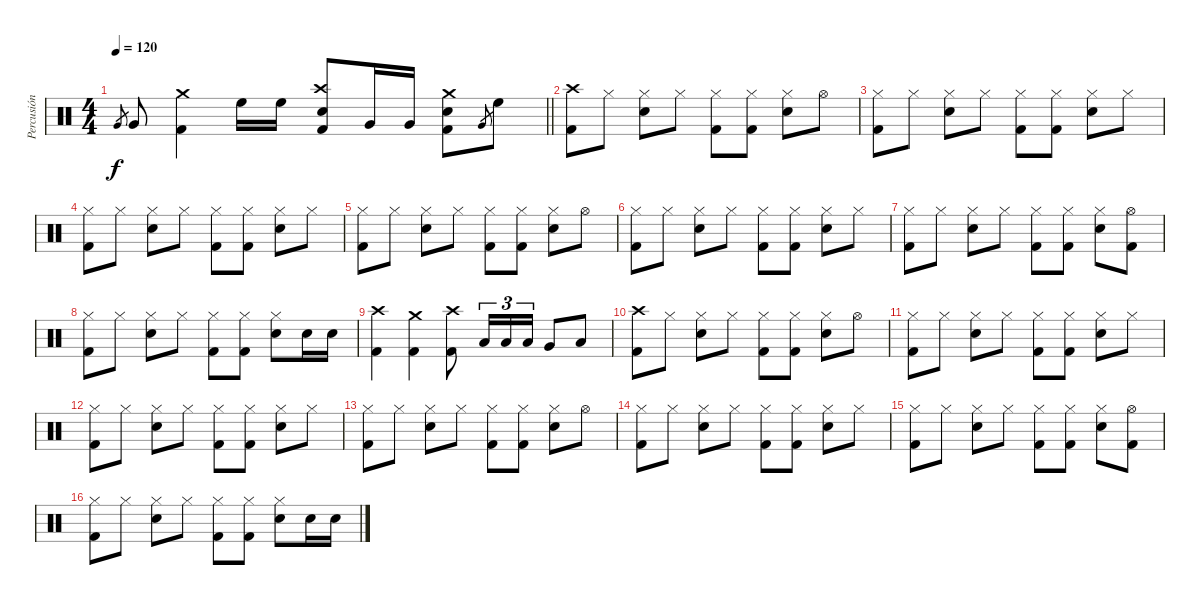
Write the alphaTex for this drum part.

\track ("Percusión" "Percusión") {instrument percussion}
\staff {score}
\articulation defaults
\ts (4 4)
\tempo 120
\clef neutral
\barLineRight lightlight
\ks c "Very Low Tom (hit)".8{gr dy f} "Very Low Tom (hit)".8
("Crash medium (hit)" "Kick (hit) 2").4 "High Floor Tom (hit)".16 "High Floor Tom (hit)".16 ("Crash high (hit)" "Electric Snare (hit)" "Kick (hit) 2").8 "Very Low Tom (hit)".16 "Very Low Tom (hit)".16 ("Crash medium (hit)" "Electric Snare (hit)" "Kick (hit) 2").8 "Very Low Tom (hit)".8{gr} "High Floor Tom (hit)".8 |
("Crash high (hit)" "Kick (hit) 2").8 "Hi-Hat (closed)".8 ("Hi-Hat (closed)" "Electric Snare (hit)").8 "Hi-Hat (closed)".8 ("Hi-Hat (closed)" "Kick (hit) 2").8 ("Hi-Hat (closed)" "Kick (hit) 2").8 ("Hi-Hat (closed)" "Electric Snare (hit)").8 "Hi-Hat (open)".8 |
("Hi-Hat (closed)" "Kick (hit) 2").8 "Hi-Hat (closed)".8 ("Hi-Hat (closed)" "Electric Snare (hit)").8 "Hi-Hat (closed)".8 ("Hi-Hat (closed)" "Kick (hit) 2").8 ("Hi-Hat (closed)" "Kick (hit) 2").8 ("Hi-Hat (closed)" "Electric Snare (hit)").8 "Hi-Hat (closed)".8 |
("Hi-Hat (closed)" "Kick (hit) 2").8 "Hi-Hat (closed)".8 ("Hi-Hat (closed)" "Electric Snare (hit)").8 "Hi-Hat (closed)".8 ("Hi-Hat (closed)" "Kick (hit) 2").8 ("Hi-Hat (closed)" "Kick (hit) 2").8 ("Hi-Hat (closed)" "Electric Snare (hit)").8 "Hi-Hat (closed)".8 |
("Hi-Hat (closed)" "Kick (hit) 2").8 "Hi-Hat (closed)".8 ("Hi-Hat (closed)" "Electric Snare (hit)").8 "Hi-Hat (closed)".8 ("Hi-Hat (closed)" "Kick (hit) 2").8 ("Hi-Hat (closed)" "Kick (hit) 2").8 ("Hi-Hat (closed)" "Electric Snare (hit)").8 "Hi-Hat (open)".8 |
("Hi-Hat (closed)" "Kick (hit) 2").8 "Hi-Hat (closed)".8 ("Hi-Hat (closed)" "Electric Snare (hit)").8 "Hi-Hat (closed)".8 ("Hi-Hat (closed)" "Kick (hit) 2").8 ("Hi-Hat (closed)" "Kick (hit) 2").8 ("Hi-Hat (closed)" "Electric Snare (hit)").8 "Hi-Hat (closed)".8 |
("Hi-Hat (closed)" "Kick (hit) 2").8 "Hi-Hat (closed)".8 ("Hi-Hat (closed)" "Electric Snare (hit)").8 "Hi-Hat (closed)".8 ("Hi-Hat (closed)" "Kick (hit) 2").8 ("Hi-Hat (closed)" "Kick (hit) 2").8 ("Hi-Hat (closed)" "Electric Snare (hit)").8 ("Hi-Hat (open)" "Kick (hit) 2").8 |
("Hi-Hat (closed)" "Kick (hit) 2").8 "Hi-Hat (closed)".8 ("Hi-Hat (closed)" "Electric Snare (hit)").8 "Hi-Hat (closed)".8 ("Hi-Hat (closed)" "Kick (hit) 2").8 ("Hi-Hat (closed)" "Kick (hit) 2").8 ("Hi-Hat (closed)" "Electric Snare (hit)").8 "Electric Snare (hit)".16 "Electric Snare (hit)".16 |
("Crash high (hit)" "Kick (hit) 2").4 ("Crash medium (hit)" "Kick (hit) 2").4 ("Crash high (hit)" "Kick (hit) 2").8 "Low Tom (hit)".16{tu (3 2)} "Low Tom (hit)".16{tu (3 2)} "Low Tom (hit)".16{tu (3 2)} "Very Low Tom (hit)".8 "Low Tom (hit)".8 |
("Crash high (hit)" "Kick (hit) 2").8 "Hi-Hat (closed)".8 ("Hi-Hat (closed)" "Electric Snare (hit)").8 "Hi-Hat (closed)".8 ("Hi-Hat (closed)" "Kick (hit) 2").8 ("Hi-Hat (closed)" "Kick (hit) 2").8 ("Hi-Hat (closed)" "Electric Snare (hit)").8 "Hi-Hat (open)".8 |
("Hi-Hat (closed)" "Kick (hit) 2").8 "Hi-Hat (closed)".8 ("Hi-Hat (closed)" "Electric Snare (hit)").8 "Hi-Hat (closed)".8 ("Hi-Hat (closed)" "Kick (hit) 2").8 ("Hi-Hat (closed)" "Kick (hit) 2").8 ("Hi-Hat (closed)" "Electric Snare (hit)").8 "Hi-Hat (closed)".8 |
("Hi-Hat (closed)" "Kick (hit) 2").8 "Hi-Hat (closed)".8 ("Hi-Hat (closed)" "Electric Snare (hit)").8 "Hi-Hat (closed)".8 ("Hi-Hat (closed)" "Kick (hit) 2").8 ("Hi-Hat (closed)" "Kick (hit) 2").8 ("Hi-Hat (closed)" "Electric Snare (hit)").8 "Hi-Hat (closed)".8 |
("Hi-Hat (closed)" "Kick (hit) 2").8 "Hi-Hat (closed)".8 ("Hi-Hat (closed)" "Electric Snare (hit)").8 "Hi-Hat (closed)".8 ("Hi-Hat (closed)" "Kick (hit) 2").8 ("Hi-Hat (closed)" "Kick (hit) 2").8 ("Hi-Hat (closed)" "Electric Snare (hit)").8 "Hi-Hat (open)".8 |
("Hi-Hat (closed)" "Kick (hit) 2").8 "Hi-Hat (closed)".8 ("Hi-Hat (closed)" "Electric Snare (hit)").8 "Hi-Hat (closed)".8 ("Hi-Hat (closed)" "Kick (hit) 2").8 ("Hi-Hat (closed)" "Kick (hit) 2").8 ("Hi-Hat (closed)" "Electric Snare (hit)").8 "Hi-Hat (closed)".8 |
("Hi-Hat (closed)" "Kick (hit) 2").8 "Hi-Hat (closed)".8 ("Hi-Hat (closed)" "Electric Snare (hit)").8 "Hi-Hat (closed)".8 ("Hi-Hat (closed)" "Kick (hit) 2").8 ("Hi-Hat (closed)" "Kick (hit) 2").8 ("Hi-Hat (closed)" "Electric Snare (hit)").8 ("Hi-Hat (open)" "Kick (hit) 2").8 |
("Hi-Hat (closed)" "Kick (hit) 2").8 "Hi-Hat (closed)".8 ("Hi-Hat (closed)" "Electric Snare (hit)").8 "Hi-Hat (closed)".8 ("Hi-Hat (closed)" "Kick (hit) 2").8 ("Hi-Hat (closed)" "Kick (hit) 2").8 ("Hi-Hat (closed)" "Electric Snare (hit)").8 "Electric Snare (hit)".16 "Electric Snare (hit)".16
